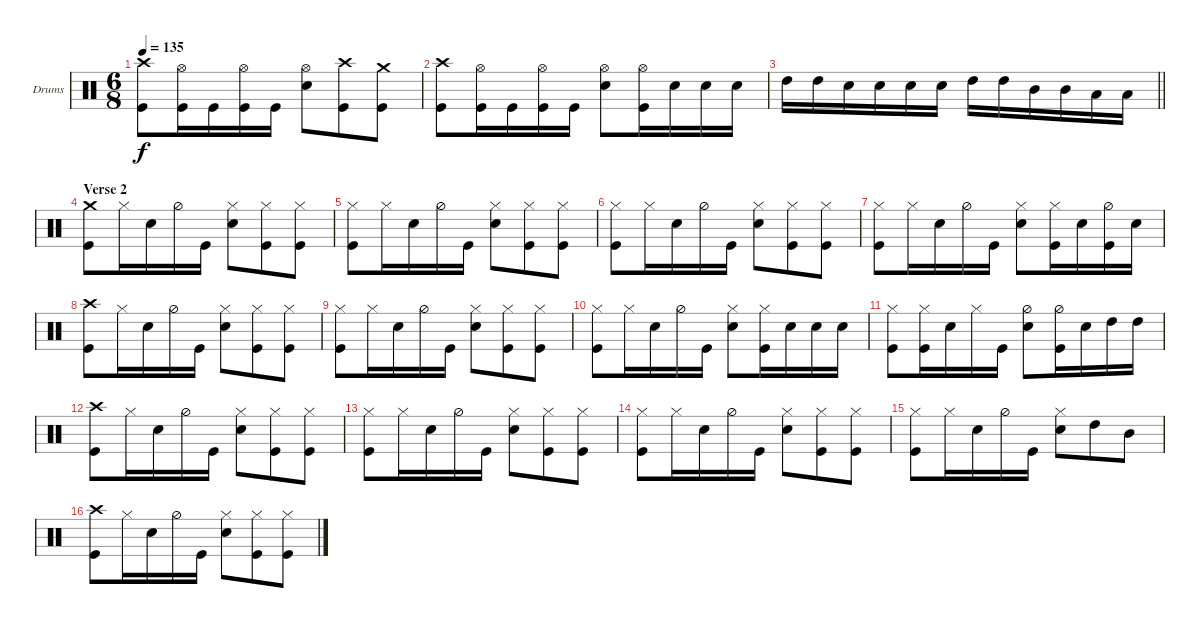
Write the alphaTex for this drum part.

\bracketExtendMode groupsimilarinstruments
\firstSystemTrackNameOrientation horizontal
\otherSystemsTrackNameOrientation horizontal
\track ("drums (Anton Zulganov)" "Drums") {instrument percussion}
\staff {score}
\articulation defaults
\ts (6 8)
\tempo 135
\clef neutral
\ks aminor
("Kick (hit)" "Crash high (hit)").8{dy f} ("Kick (hit)" "Hi-Hat (open)").16 "Kick (hit)".16 ("Kick (hit)" "Hi-Hat (open)").16 "Kick (hit)".16 ("Snare (hit) 2" "Hi-Hat (open)").8 ("Kick (hit)" "Crash high (hit)").8 ("Kick (hit)" "Crash medium (hit)").8 |
("Kick (hit)" "Crash high (hit)").8 ("Kick (hit)" "Hi-Hat (open)").16 "Kick (hit)".16 ("Kick (hit)" "Hi-Hat (open)").16 "Kick (hit)".16 ("Snare (hit) 2" "Hi-Hat (open)").8 ("Kick (hit)" "Hi-Hat (open)").16 "Snare (hit) 2".16 "Snare (hit) 2".16 "Snare (hit) 2".16 |
\barLineRight lightlight "High Tom (hit)".16 "High Tom (hit)".16 "Snare (hit) 2".16 "Snare (hit) 2".16 "Snare (hit) 2".16 "Snare (hit) 2".16 "High Tom (hit)".16 "High Tom (hit)".16 "Mid Tom (hit)".16 "Mid Tom (hit)".16 "Low Tom (hit)".16 "Low Tom (hit)".16
|
\section ("" "Verse 2")
("Kick (hit)" "Crash medium (hit)").8 "Hi-Hat (closed)".16 "Snare (hit) 2".16 "Hi-Hat (half)".16 "Kick (hit)".16 ("Snare (hit) 2" "Hi-Hat (closed)").8 ("Kick (hit)" "Hi-Hat (closed)").8 ("Kick (hit)" "Hi-Hat (closed)").8 |
("Kick (hit)" "Hi-Hat (closed)").8 "Hi-Hat (closed)".16 "Snare (hit) 2".16 "Hi-Hat (half)".16 "Kick (hit)".16 ("Snare (hit) 2" "Hi-Hat (closed)").8 ("Kick (hit)" "Hi-Hat (closed)").8 ("Kick (hit)" "Hi-Hat (closed)").8 |
("Kick (hit)" "Hi-Hat (closed)").8 "Hi-Hat (closed)".16 "Snare (hit) 2".16 "Hi-Hat (half)".16 "Kick (hit)".16 ("Snare (hit) 2" "Hi-Hat (closed)").8 ("Kick (hit)" "Hi-Hat (closed)").8 ("Kick (hit)" "Hi-Hat (closed)").8 |
("Kick (hit)" "Hi-Hat (closed)").8 "Hi-Hat (closed)".16 "Snare (hit) 2".16 "Hi-Hat (half)".16 "Kick (hit)".16 ("Snare (hit) 2" "Hi-Hat (closed)").8 ("Kick (hit)" "Hi-Hat (closed)").16 "Snare (hit) 2".16 ("Kick (hit)" "Hi-Hat (half)").16 "Snare (hit) 2".16 |
("Kick (hit)" "Crash high (hit)").8 "Hi-Hat (closed)".16 "Snare (hit) 2".16 "Hi-Hat (half)".16 "Kick (hit)".16 ("Snare (hit) 2" "Hi-Hat (closed)").8 ("Kick (hit)" "Hi-Hat (closed)").8 ("Kick (hit)" "Hi-Hat (closed)").8 |
("Kick (hit)" "Hi-Hat (closed)").8 "Hi-Hat (closed)".16 "Snare (hit) 2".16 "Hi-Hat (half)".16 "Kick (hit)".16 ("Snare (hit) 2" "Hi-Hat (closed)").8 ("Kick (hit)" "Hi-Hat (closed)").8 ("Kick (hit)" "Hi-Hat (closed)").8 |
("Kick (hit)" "Hi-Hat (closed)").8 "Hi-Hat (closed)".16 "Snare (hit) 2".16 "Hi-Hat (half)".16 "Kick (hit)".16 ("Snare (hit) 2" "Hi-Hat (closed)").8 ("Kick (hit)" "Hi-Hat (closed)").16 "Snare (hit) 2".16 "Snare (hit) 2".16 "Snare (hit) 2".16 |
("Kick (hit)" "Hi-Hat (closed)").8 ("Kick (hit)" "Hi-Hat (closed)").16 "Snare (hit) 2".16 "Hi-Hat (closed)".16 "Kick (hit)".16 ("Snare (hit) 2" "Hi-Hat (half)").8 ("Kick (hit)" "Hi-Hat (half)").16 "Snare (hit) 2".16 "High Tom (hit)".16 "High Tom (hit)".16 |
("Kick (hit)" "Crash high (hit)").8 "Hi-Hat (closed)".16 "Snare (hit) 2".16 "Hi-Hat (half)".16 "Kick (hit)".16 ("Snare (hit) 2" "Hi-Hat (closed)").8 ("Kick (hit)" "Hi-Hat (closed)").8 ("Kick (hit)" "Hi-Hat (closed)").8 |
("Kick (hit)" "Hi-Hat (closed)").8 "Hi-Hat (closed)".16 "Snare (hit) 2".16 "Hi-Hat (half)".16 "Kick (hit)".16 ("Snare (hit) 2" "Hi-Hat (closed)").8 ("Kick (hit)" "Hi-Hat (closed)").8 ("Kick (hit)" "Hi-Hat (closed)").8 |
("Kick (hit)" "Hi-Hat (closed)").8 "Hi-Hat (closed)".16 "Snare (hit) 2".16 "Hi-Hat (half)".16 "Kick (hit)".16 ("Snare (hit) 2" "Hi-Hat (closed)").8 ("Kick (hit)" "Hi-Hat (closed)").8 ("Kick (hit)" "Hi-Hat (closed)").8 |
("Kick (hit)" "Hi-Hat (closed)").8 "Hi-Hat (closed)".16 "Snare (hit) 2".16 "Hi-Hat (half)".16 "Kick (hit)".16 ("Snare (hit) 2" "Hi-Hat (closed)").8 "High Tom (hit)".8 "Mid Tom (hit)".8 |
("Kick (hit)" "Crash high (hit)").8 "Hi-Hat (closed)".16 "Snare (hit) 2".16 "Hi-Hat (half)".16 "Kick (hit)".16 ("Snare (hit) 2" "Hi-Hat (closed)").8 ("Kick (hit)" "Hi-Hat (closed)").8 ("Kick (hit)" "Hi-Hat (closed)").8
